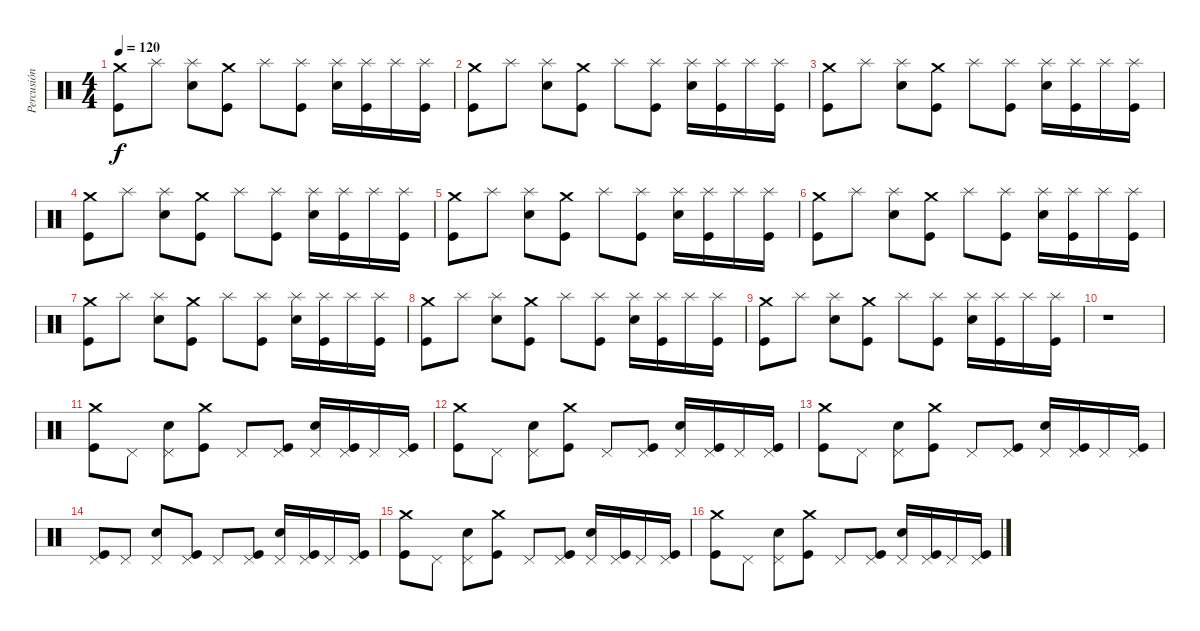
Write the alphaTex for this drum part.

\track ("Percusión" "Percusión") {instrument percussion}
\staff {score}
\articulation defaults
\ts (4 4)
\tempo 120
\clef neutral
\ks c
("Crash medium (hit)" "Kick (hit)").8{dy f} "Splash (hit)".8 ("Splash (hit)" "Electric Snare (hit)").8 ("Crash medium (hit)" "Kick (hit)").8 "Splash (hit)".8 ("Splash (hit)" "Kick (hit)").8 ("Splash (hit)" "Electric Snare (hit)").16 ("Splash (hit)" "Kick (hit)").16 "Splash (hit)".16 ("Splash (hit)" "Kick (hit)").16 |
("Crash medium (hit)" "Kick (hit)").8 "Splash (hit)".8 ("Splash (hit)" "Electric Snare (hit)").8 ("Crash medium (hit)" "Kick (hit)").8 "Splash (hit)".8 ("Splash (hit)" "Kick (hit)").8 ("Splash (hit)" "Electric Snare (hit)").16 ("Splash (hit)" "Kick (hit)").16 "Splash (hit)".16 ("Splash (hit)" "Kick (hit)").16 |
("Crash medium (hit)" "Kick (hit)").8 "Splash (hit)".8 ("Splash (hit)" "Electric Snare (hit)").8 ("Crash medium (hit)" "Kick (hit)").8 "Splash (hit)".8 ("Splash (hit)" "Kick (hit)").8 ("Splash (hit)" "Electric Snare (hit)").16 ("Splash (hit)" "Kick (hit)").16 "Splash (hit)".16 ("Splash (hit)" "Kick (hit)").16 |
("Crash medium (hit)" "Kick (hit)").8 "Splash (hit)".8 ("Splash (hit)" "Electric Snare (hit)").8 ("Crash medium (hit)" "Kick (hit)").8 "Splash (hit)".8 ("Splash (hit)" "Kick (hit)").8 ("Splash (hit)" "Electric Snare (hit)").16 ("Splash (hit)" "Kick (hit)").16 "Splash (hit)".16 ("Splash (hit)" "Kick (hit)").16 |
("Crash medium (hit)" "Kick (hit)").8 "Splash (hit)".8 ("Splash (hit)" "Electric Snare (hit)").8 ("Crash medium (hit)" "Kick (hit)").8 "Splash (hit)".8 ("Splash (hit)" "Kick (hit)").8 ("Splash (hit)" "Electric Snare (hit)").16 ("Splash (hit)" "Kick (hit)").16 "Splash (hit)".16 ("Splash (hit)" "Kick (hit)").16 |
("Crash medium (hit)" "Kick (hit)").8 "Splash (hit)".8 ("Splash (hit)" "Electric Snare (hit)").8 ("Crash medium (hit)" "Kick (hit)").8 "Splash (hit)".8 ("Splash (hit)" "Kick (hit)").8 ("Splash (hit)" "Electric Snare (hit)").16 ("Splash (hit)" "Kick (hit)").16 "Splash (hit)".16 ("Splash (hit)" "Kick (hit)").16 |
("Crash medium (hit)" "Kick (hit)").8 "Splash (hit)".8 ("Splash (hit)" "Electric Snare (hit)").8 ("Crash medium (hit)" "Kick (hit)").8 "Splash (hit)".8 ("Splash (hit)" "Kick (hit)").8 ("Splash (hit)" "Electric Snare (hit)").16 ("Splash (hit)" "Kick (hit)").16 "Splash (hit)".16 ("Splash (hit)" "Kick (hit)").16 |
("Crash medium (hit)" "Kick (hit)").8 "Splash (hit)".8 ("Splash (hit)" "Electric Snare (hit)").8 ("Crash medium (hit)" "Kick (hit)").8 "Splash (hit)".8 ("Splash (hit)" "Kick (hit)").8 ("Splash (hit)" "Electric Snare (hit)").16 ("Splash (hit)" "Kick (hit)").16 "Splash (hit)".16 ("Splash (hit)" "Kick (hit)").16 |
("Crash medium (hit)" "Kick (hit)").8 "Splash (hit)".8 ("Splash (hit)" "Electric Snare (hit)").8 ("Crash medium (hit)" "Kick (hit)").8 "Splash (hit)".8 ("Splash (hit)" "Kick (hit)").8 ("Splash (hit)" "Electric Snare (hit)").16 ("Splash (hit)" "Kick (hit)").16 "Splash (hit)".16 ("Splash (hit)" "Kick (hit)").16 |
r.1 |
("Crash medium (hit)" "Kick (hit)").8 "Pedal Hi-Hat (hit)".8 ("Pedal Hi-Hat (hit)" "Electric Snare (hit)").8 ("Crash medium (hit)" "Kick (hit)").8 "Pedal Hi-Hat (hit)".8 ("Pedal Hi-Hat (hit)" "Kick (hit)").8 ("Pedal Hi-Hat (hit)" "Electric Snare (hit)").16 ("Pedal Hi-Hat (hit)" "Kick (hit)").16 "Pedal Hi-Hat (hit)".16 ("Pedal Hi-Hat (hit)" "Kick (hit)").16 |
("Crash medium (hit)" "Kick (hit)").8 "Pedal Hi-Hat (hit)".8 ("Pedal Hi-Hat (hit)" "Electric Snare (hit)").8 ("Crash medium (hit)" "Kick (hit)").8 "Pedal Hi-Hat (hit)".8 ("Pedal Hi-Hat (hit)" "Kick (hit)").8 ("Pedal Hi-Hat (hit)" "Electric Snare (hit)").16 ("Pedal Hi-Hat (hit)" "Kick (hit)").16 "Pedal Hi-Hat (hit)".16 ("Pedal Hi-Hat (hit)" "Kick (hit)").16 |
("Crash medium (hit)" "Kick (hit)").8 "Pedal Hi-Hat (hit)".8 ("Pedal Hi-Hat (hit)" "Electric Snare (hit)").8 ("Crash medium (hit)" "Kick (hit)").8 "Pedal Hi-Hat (hit)".8 ("Pedal Hi-Hat (hit)" "Kick (hit)").8 ("Pedal Hi-Hat (hit)" "Electric Snare (hit)").16 ("Pedal Hi-Hat (hit)" "Kick (hit)").16 "Pedal Hi-Hat (hit)".16 ("Pedal Hi-Hat (hit)" "Kick (hit)").16 |
("Pedal Hi-Hat (hit)" "Kick (hit)").8 "Pedal Hi-Hat (hit)".8 ("Pedal Hi-Hat (hit)" "Electric Snare (hit)").8 ("Pedal Hi-Hat (hit)" "Kick (hit)").8 "Pedal Hi-Hat (hit)".8 ("Pedal Hi-Hat (hit)" "Kick (hit)").8 ("Pedal Hi-Hat (hit)" "Electric Snare (hit)").16 ("Pedal Hi-Hat (hit)" "Kick (hit)").16 "Pedal Hi-Hat (hit)".16 ("Pedal Hi-Hat (hit)" "Kick (hit)").16 |
("Crash medium (hit)" "Kick (hit)").8 "Pedal Hi-Hat (hit)".8 ("Pedal Hi-Hat (hit)" "Electric Snare (hit)").8 ("Crash medium (hit)" "Kick (hit)").8 "Pedal Hi-Hat (hit)".8 ("Pedal Hi-Hat (hit)" "Kick (hit)").8 ("Pedal Hi-Hat (hit)" "Electric Snare (hit)").16 ("Pedal Hi-Hat (hit)" "Kick (hit)").16 "Pedal Hi-Hat (hit)".16 ("Pedal Hi-Hat (hit)" "Kick (hit)").16 |
("Crash medium (hit)" "Kick (hit)").8 "Pedal Hi-Hat (hit)".8 ("Pedal Hi-Hat (hit)" "Electric Snare (hit)").8 ("Crash medium (hit)" "Kick (hit)").8 "Pedal Hi-Hat (hit)".8 ("Pedal Hi-Hat (hit)" "Kick (hit)").8 ("Pedal Hi-Hat (hit)" "Electric Snare (hit)").16 ("Pedal Hi-Hat (hit)" "Kick (hit)").16 "Pedal Hi-Hat (hit)".16 ("Pedal Hi-Hat (hit)" "Kick (hit)").16
